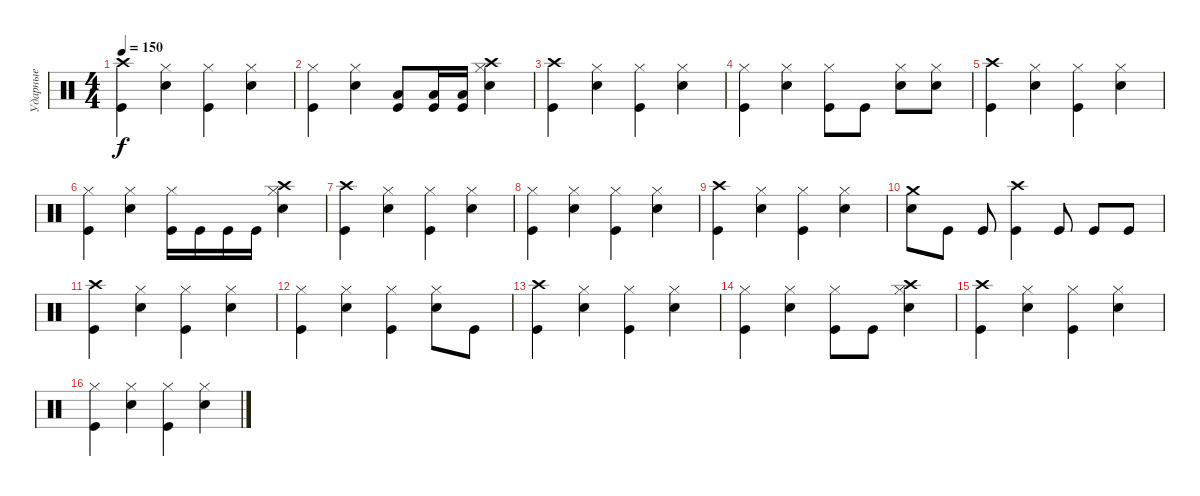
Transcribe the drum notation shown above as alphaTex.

\track ("Ударные" "Ударные") {instrument percussion}
\staff {score}
\articulation defaults
\ts (4 4)
\tempo 150
\clef neutral
\ks c
("Crash high (hit)" "Kick (hit)").4{dy f} ("Hi-Hat (closed)" "Electric Snare (hit)").4 ("Hi-Hat (closed)" "Kick (hit)").4 ("Hi-Hat (closed)" "Electric Snare (hit)").4 |
("Hi-Hat (closed)" "Kick (hit)").4 ("Hi-Hat (closed)" "Electric Snare (hit)").4 ("Low Tom (hit)" "Kick (hit)").8 ("Low Tom (hit)" "Kick (hit)").16 ("Low Tom (hit)" "Kick (hit)").16 ("Crash high (hit)" "Hi-Hat (closed)" "Electric Snare (hit)").4 |
("Crash high (hit)" "Kick (hit)").4 ("Hi-Hat (closed)" "Electric Snare (hit)").4 ("Hi-Hat (closed)" "Kick (hit)").4 ("Hi-Hat (closed)" "Electric Snare (hit)").4 |
("Hi-Hat (closed)" "Kick (hit)").4 ("Hi-Hat (closed)" "Electric Snare (hit)").4 ("Hi-Hat (closed)" "Kick (hit)").8 "Kick (hit)".8 ("Hi-Hat (closed)" "Electric Snare (hit)").8 ("Hi-Hat (closed)" "Electric Snare (hit)").8 |
("Crash high (hit)" "Kick (hit)").4 ("Hi-Hat (closed)" "Electric Snare (hit)").4 ("Hi-Hat (closed)" "Kick (hit)").4 ("Hi-Hat (closed)" "Electric Snare (hit)").4 |
("Hi-Hat (closed)" "Kick (hit)").4 ("Hi-Hat (closed)" "Electric Snare (hit)").4 ("Hi-Hat (closed)" "Kick (hit)").16 "Kick (hit)".16 "Kick (hit)".16 "Kick (hit)".16 ("Crash high (hit)" "Hi-Hat (closed)" "Electric Snare (hit)").4 |
("Crash high (hit)" "Kick (hit)").4 ("Hi-Hat (closed)" "Electric Snare (hit)").4 ("Hi-Hat (closed)" "Kick (hit)").4 ("Hi-Hat (closed)" "Electric Snare (hit)").4 |
("Hi-Hat (closed)" "Kick (hit)").4 ("Hi-Hat (closed)" "Electric Snare (hit)").4 ("Hi-Hat (closed)" "Kick (hit)").4 ("Hi-Hat (closed)" "Electric Snare (hit)").4 |
("Crash high (hit)" "Kick (hit)").4 ("Hi-Hat (closed)" "Electric Snare (hit)").4 ("Hi-Hat (closed)" "Kick (hit)").4 ("Hi-Hat (closed)" "Electric Snare (hit)").4 |
("Crash medium (hit)" "Electric Snare (hit)").8 "Kick (hit)".8 "Kick (hit)".8 ("Crash high (hit)" "Kick (hit)").4 "Kick (hit)".8 "Kick (hit)".8 "Kick (hit)".8 |
("Crash high (hit)" "Kick (hit)").4 ("Hi-Hat (closed)" "Electric Snare (hit)").4 ("Hi-Hat (closed)" "Kick (hit)").4 ("Hi-Hat (closed)" "Electric Snare (hit)").4 |
("Hi-Hat (closed)" "Kick (hit)").4 ("Hi-Hat (closed)" "Electric Snare (hit)").4 ("Hi-Hat (closed)" "Kick (hit)").4 ("Hi-Hat (closed)" "Electric Snare (hit)").8 "Kick (hit)".8 |
("Crash high (hit)" "Kick (hit)").4 ("Hi-Hat (closed)" "Electric Snare (hit)").4 ("Hi-Hat (closed)" "Kick (hit)").4 ("Hi-Hat (closed)" "Electric Snare (hit)").4 |
("Hi-Hat (closed)" "Kick (hit)").4 ("Hi-Hat (closed)" "Electric Snare (hit)").4 ("Hi-Hat (closed)" "Kick (hit)").8 "Kick (hit)".8 ("Crash high (hit)" "Hi-Hat (closed)" "Electric Snare (hit)").4 |
("Crash high (hit)" "Kick (hit)").4 ("Hi-Hat (closed)" "Electric Snare (hit)").4 ("Hi-Hat (closed)" "Kick (hit)").4 ("Hi-Hat (closed)" "Electric Snare (hit)").4 |
("Hi-Hat (closed)" "Kick (hit)").4 ("Hi-Hat (closed)" "Electric Snare (hit)").4 ("Hi-Hat (closed)" "Kick (hit)").4 ("Hi-Hat (closed)" "Electric Snare (hit)").4
